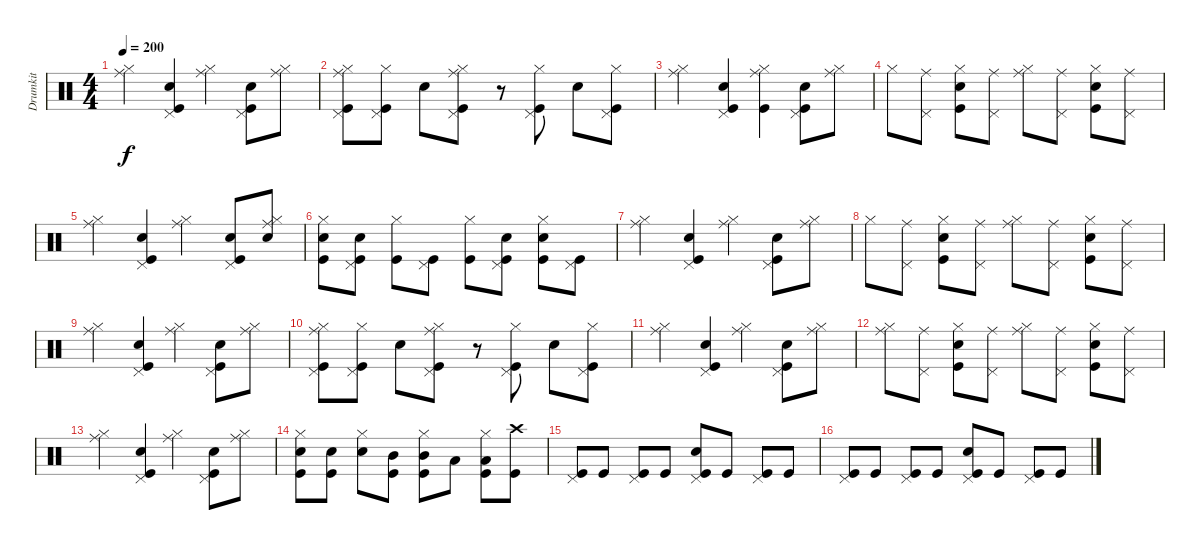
\track ("Drumkit" "Drumkit") {instrument percussion}
\staff {score}
\articulation defaults
\ts (4 4)
\tempo 200
\clef neutral
\ks c
("Ride (middle)" "Hi-Hat (closed)").4{dy f} ("Pedal Hi-Hat (hit)" "Snare (hit) 2" "Kick (hit)").4 ("Ride (middle)" "Hi-Hat (closed)").4 ("Pedal Hi-Hat (hit)" "Snare (hit) 2" "Kick (hit)").8 ("Ride (middle)" "Hi-Hat (closed)").8 |
("Ride (middle)" "Hi-Hat (closed)" "Pedal Hi-Hat (hit)" "Kick (hit)").8 ("Hi-Hat (closed)" "Pedal Hi-Hat (hit)" "Kick (hit)").8 "Snare (hit) 2".8 ("Ride (middle)" "Hi-Hat (closed)" "Pedal Hi-Hat (hit)" "Kick (hit)").8 r.8 ("Hi-Hat (closed)" "Pedal Hi-Hat (hit)" "Kick (hit)").8 "Snare (hit) 2".8 ("Hi-Hat (closed)" "Pedal Hi-Hat (hit)" "Kick (hit)").8 |
("Ride (middle)" "Hi-Hat (closed)").4 ("Pedal Hi-Hat (hit)" "Snare (hit) 2" "Kick (hit)").4 ("Ride (middle)" "Hi-Hat (closed)" "Kick (hit)").4 ("Pedal Hi-Hat (hit)" "Snare (hit) 2" "Kick (hit)").8 ("Ride (middle)" "Hi-Hat (closed)").8 |
"Hi-Hat (closed)".8 ("Ride (middle)" "Pedal Hi-Hat (hit)").8 ("Hi-Hat (closed)" "Snare (hit) 2" "Kick (hit)").8 ("Ride (middle)" "Pedal Hi-Hat (hit)").8 ("Ride (middle)" "Hi-Hat (closed)").8 ("Ride (middle)" "Pedal Hi-Hat (hit)").8 ("Hi-Hat (closed)" "Snare (hit) 2" "Kick (hit)").8 ("Ride (middle)" "Pedal Hi-Hat (hit)").8 |
("Ride (middle)" "Hi-Hat (closed)").4 ("Pedal Hi-Hat (hit)" "Snare (hit) 2" "Kick (hit)").4 ("Ride (middle)" "Hi-Hat (closed)").4 ("Pedal Hi-Hat (hit)" "Snare (hit) 2" "Kick (hit)").8 ("Ride (middle)" "Hi-Hat (closed)" "Snare (hit) 2").8 |
("Hi-Hat (closed)" "Snare (hit) 2" "Kick (hit)").8 ("Pedal Hi-Hat (hit)" "Snare (hit) 2" "Kick (hit)").8 ("Hi-Hat (closed)" "Kick (hit)").8 ("Pedal Hi-Hat (hit)" "Kick (hit)").8 ("Hi-Hat (closed)" "Kick (hit)").8 ("Pedal Hi-Hat (hit)" "Snare (hit) 2" "Kick (hit)").8 ("Hi-Hat (closed)" "Snare (hit) 2" "Kick (hit)").8 ("Pedal Hi-Hat (hit)" "Kick (hit)").8 |
("Ride (middle)" "Hi-Hat (closed)").4 ("Pedal Hi-Hat (hit)" "Snare (hit) 2" "Kick (hit)").4 ("Ride (middle)" "Hi-Hat (closed)").4 ("Pedal Hi-Hat (hit)" "Snare (hit) 2" "Kick (hit)").8 ("Ride (middle)" "Hi-Hat (closed)").8 |
"Hi-Hat (closed)".8 ("Ride (middle)" "Pedal Hi-Hat (hit)").8 ("Hi-Hat (closed)" "Snare (hit) 2" "Kick (hit)").8 ("Ride (middle)" "Pedal Hi-Hat (hit)").8 ("Ride (middle)" "Hi-Hat (closed)").8 ("Ride (middle)" "Pedal Hi-Hat (hit)").8 ("Hi-Hat (closed)" "Snare (hit) 2" "Kick (hit)").8 ("Ride (middle)" "Pedal Hi-Hat (hit)").8 |
("Ride (middle)" "Hi-Hat (closed)").4 ("Pedal Hi-Hat (hit)" "Snare (hit) 2" "Kick (hit)").4 ("Ride (middle)" "Hi-Hat (closed)").4 ("Pedal Hi-Hat (hit)" "Snare (hit) 2" "Kick (hit)").8 ("Ride (middle)" "Hi-Hat (closed)").8 |
("Ride (middle)" "Hi-Hat (closed)" "Pedal Hi-Hat (hit)" "Kick (hit)").8 ("Hi-Hat (closed)" "Pedal Hi-Hat (hit)" "Kick (hit)").8 "Snare (hit) 2".8 ("Ride (middle)" "Hi-Hat (closed)" "Pedal Hi-Hat (hit)" "Kick (hit)").8 r.8 ("Hi-Hat (closed)" "Pedal Hi-Hat (hit)" "Kick (hit)").8 "Snare (hit) 2".8 ("Hi-Hat (closed)" "Pedal Hi-Hat (hit)" "Kick (hit)").8 |
("Ride (middle)" "Hi-Hat (closed)").4 ("Pedal Hi-Hat (hit)" "Snare (hit) 2" "Kick (hit)").4 ("Ride (middle)" "Hi-Hat (closed)").4 ("Pedal Hi-Hat (hit)" "Snare (hit) 2" "Kick (hit)").8 ("Ride (middle)" "Hi-Hat (closed)").8 |
("Ride (middle)" "Hi-Hat (closed)").8 ("Ride (middle)" "Pedal Hi-Hat (hit)").8 ("Hi-Hat (closed)" "Snare (hit) 2" "Kick (hit)").8 ("Ride (middle)" "Pedal Hi-Hat (hit)").8 ("Ride (middle)" "Hi-Hat (closed)").8 ("Ride (middle)" "Pedal Hi-Hat (hit)").8 ("Hi-Hat (closed)" "Snare (hit) 2" "Kick (hit)").8 ("Ride (middle)" "Pedal Hi-Hat (hit)").8 |
("Ride (middle)" "Hi-Hat (closed)").4 ("Pedal Hi-Hat (hit)" "Snare (hit) 2" "Kick (hit)").4 ("Ride (middle)" "Hi-Hat (closed)").4 ("Pedal Hi-Hat (hit)" "Snare (hit) 2" "Kick (hit)").8 ("Ride (middle)" "Hi-Hat (closed)").8 |
("Hi-Hat (closed)" "Snare (hit) 2" "Kick (hit)").8 ("Snare (hit) 2" "Kick (hit)").8 ("Hi-Hat (closed)" "Snare (hit) 2").8 ("Mid Tom (hit)" "Kick (hit)").8 ("Hi-Hat (closed)" "Mid Tom (hit)" "Kick (hit)").8 "Low Floor Tom (hit)".8 ("Hi-Hat (closed)" "Low Floor Tom (hit)" "Kick (hit)").8 ("Crash high (hit)" "Kick (hit)").8 |
("Pedal Hi-Hat (hit)" "Kick (hit)").8 "Kick (hit)".8 ("Pedal Hi-Hat (hit)" "Kick (hit)").8 "Kick (hit)".8 ("Pedal Hi-Hat (hit)" "Snare (hit) 2" "Kick (hit)").8 "Kick (hit)".8 ("Pedal Hi-Hat (hit)" "Kick (hit)").8 "Kick (hit)".8 |
("Pedal Hi-Hat (hit)" "Kick (hit)").8 "Kick (hit)".8 ("Pedal Hi-Hat (hit)" "Kick (hit)").8 "Kick (hit)".8 ("Pedal Hi-Hat (hit)" "Snare (hit) 2" "Kick (hit)").8 "Kick (hit)".8 ("Pedal Hi-Hat (hit)" "Kick (hit)").8 "Kick (hit)".8
